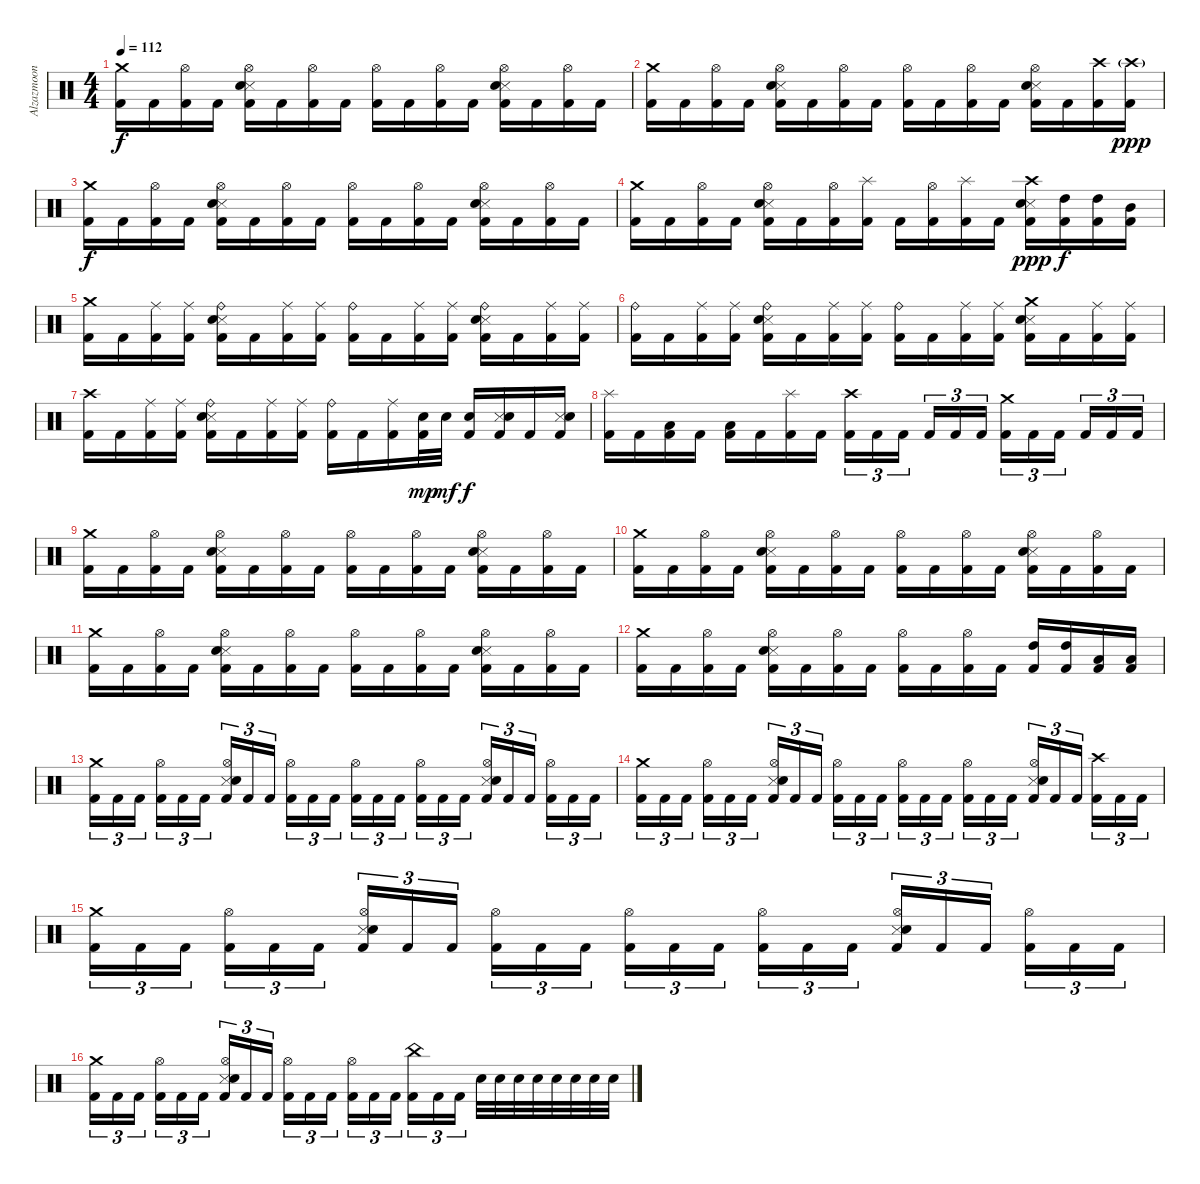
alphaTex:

\track ("Alzazmoon" "Alzazmoon") {instrument percussion}
\staff {score}
\articulation defaults
\ts (4 4)
\tempo 112
\clef neutral
\ks c
("Crash medium (hit)" "Kick (hit) 2").16{dy f} "Kick (hit) 2".16 ("Hi-Hat (open)" "Kick (hit) 2").16 "Kick (hit) 2".16 ("Hi-Hat (open)" "Snare (side stick) 3" "Snare (hit) 2" "Kick (hit) 2").16 "Kick (hit) 2".16 ("Hi-Hat (open)" "Kick (hit) 2").16 "Kick (hit) 2".16 ("Hi-Hat (open)" "Kick (hit) 2").16 "Kick (hit) 2".16 ("Hi-Hat (open)" "Kick (hit) 2").16 "Kick (hit) 2".16 ("Hi-Hat (open)" "Snare (side stick) 3" "Snare (hit) 2" "Kick (hit) 2").16 "Kick (hit) 2".16 ("Hi-Hat (open)" "Kick (hit) 2").16 "Kick (hit) 2".16 |
("Crash medium (hit)" "Kick (hit) 2").16 "Kick (hit) 2".16 ("Hi-Hat (open)" "Kick (hit) 2").16 "Kick (hit) 2".16 ("Hi-Hat (open)" "Snare (side stick) 3" "Snare (hit) 2" "Kick (hit) 2").16 "Kick (hit) 2".16 ("Hi-Hat (open)" "Kick (hit) 2").16 "Kick (hit) 2".16 ("Hi-Hat (open)" "Kick (hit) 2").16 "Kick (hit) 2".16 ("Hi-Hat (open)" "Kick (hit) 2").16 "Kick (hit) 2".16 ("Hi-Hat (open)" "Snare (side stick) 3" "Snare (hit) 2" "Kick (hit) 2").16 "Kick (hit) 2".16 ("Crash high (hit)" "Kick (hit) 2").16 ("Crash high (hit)"{g} "Kick (hit) 2").16{dy ppp} |
("Crash medium (hit)" "Kick (hit) 2").16{dy f} "Kick (hit) 2".16 ("Hi-Hat (open)" "Kick (hit) 2").16 "Kick (hit) 2".16 ("Hi-Hat (open)" "Snare (side stick) 3" "Snare (hit) 2" "Kick (hit) 2").16 "Kick (hit) 2".16 ("Hi-Hat (open)" "Kick (hit) 2").16 "Kick (hit) 2".16 ("Hi-Hat (open)" "Kick (hit) 2").16 "Kick (hit) 2".16 ("Hi-Hat (open)" "Kick (hit) 2").16 "Kick (hit) 2".16 ("Hi-Hat (open)" "Snare (side stick) 3" "Snare (hit) 2" "Kick (hit) 2").16 "Kick (hit) 2".16 ("Hi-Hat (open)" "Kick (hit) 2").16 "Kick (hit) 2".16 |
("Crash medium (hit)" "Kick (hit) 2").16 "Kick (hit) 2".16 ("Hi-Hat (open)" "Kick (hit) 2").16 "Kick (hit) 2".16 ("Hi-Hat (open)" "Snare (side stick) 3" "Snare (hit) 2" "Kick (hit) 2").16 "Kick (hit) 2".16 ("Hi-Hat (open)" "Kick (hit) 2").16 ("Splash (hit)" "Kick (hit) 2").16 "Kick (hit) 2".16 ("Hi-Hat (open)" "Kick (hit) 2").16 ("Splash (hit)" "Kick (hit) 2").16 "Kick (hit) 2".16 ("Crash high (hit)" "Snare (side stick) 3" "Snare (hit) 2" "Kick (hit) 2").16{dy ppp} ("High Tom (hit)" "Kick (hit) 2").16{dy f} ("High Tom (hit)" "Kick (hit) 2").16 ("Mid Tom (hit)" "Kick (hit) 2").16 |
("Crash medium (hit)" "Kick (hit) 2").16 "Kick (hit) 2".16 ("Ride (middle)" "Kick (hit) 2").16 ("Ride (middle)" "Kick (hit) 2").16 ("Ride (bell)" "Snare (side stick) 3" "Snare (hit) 2" "Kick (hit) 2").16 "Kick (hit) 2".16 ("Ride (middle)" "Kick (hit) 2").16 ("Ride (middle)" "Kick (hit) 2").16 ("Ride (bell)" "Kick (hit) 2").16 "Kick (hit) 2".16 ("Ride (middle)" "Kick (hit) 2").16 ("Ride (middle)" "Kick (hit) 2").16 ("Ride (bell)" "Snare (side stick) 3" "Snare (hit) 2" "Kick (hit) 2").16 "Kick (hit) 2".16 ("Ride (middle)" "Kick (hit) 2").16 ("Ride (middle)" "Kick (hit) 2").16 |
("Ride (bell)" "Kick (hit) 2").16 "Kick (hit) 2".16 ("Ride (middle)" "Kick (hit) 2").16 ("Ride (middle)" "Kick (hit) 2").16 ("Ride (bell)" "Snare (side stick) 3" "Snare (hit) 2" "Kick (hit) 2").16 "Kick (hit) 2".16 ("Ride (middle)" "Kick (hit) 2").16 ("Ride (middle)" "Kick (hit) 2").16 ("Ride (bell)" "Kick (hit) 2").16 "Kick (hit) 2".16 ("Ride (middle)" "Kick (hit) 2").16 ("Ride (middle)" "Kick (hit) 2").16 ("Crash medium (hit)" "Snare (side stick) 3" "Snare (hit) 2" "Kick (hit) 2").16 "Kick (hit) 2".16 ("Ride (middle)" "Kick (hit) 2").16 ("Ride (middle)" "Kick (hit) 2").16 |
("Crash high (hit)" "Kick (hit) 2").16 "Kick (hit) 2".16 ("Ride (middle)" "Kick (hit) 2").16 ("Ride (middle)" "Kick (hit) 2").16 ("Ride (bell)" "Snare (side stick) 3" "Snare (hit) 2" "Kick (hit) 2").16 "Kick (hit) 2".16 ("Ride (middle)" "Kick (hit) 2").16 ("Ride (middle)" "Kick (hit) 2").16 ("Ride (bell)" "Kick (hit) 2").16 "Kick (hit) 2".16 ("Ride (middle)" "Kick (hit) 2").16 ("Snare (hit) 2" "Kick (hit) 2").32{dy mp} "Snare (hit) 2".32{dy mf} ("Snare (hit) 2" "Kick (hit) 2").16{dy f} ("Snare (side stick) 3" "Snare (hit) 2" "Kick (hit) 2").16 "Kick (hit) 2".16 ("Snare (side stick) 3" "Snare (hit) 2" "Kick (hit) 2").16 |
("Splash (hit)" "Kick (hit) 2").16 "Kick (hit) 2".16 ("Low Tom (hit)" "Kick (hit) 2").16 "Kick (hit) 2".16 ("Low Tom (hit)" "Kick (hit) 2").16 "Kick (hit) 2".16 ("Splash (hit)" "Kick (hit) 2").16 "Kick (hit) 2".16 ("Crash high (hit)" "Kick (hit) 2").16{tu (3 2)} "Kick (hit) 2".16{tu (3 2)} "Kick (hit) 2".16{tu (3 2) beam splitsecondary} "Kick (hit) 2".16{tu (3 2)} "Kick (hit) 2".16{tu (3 2)} "Kick (hit) 2".16{tu (3 2)} ("Crash medium (hit)" "Kick (hit) 2").16{tu (3 2)} "Kick (hit) 2".16{tu (3 2)} "Kick (hit) 2".16{tu (3 2) beam splitsecondary} "Kick (hit) 2".16{tu (3 2)} "Kick (hit) 2".16{tu (3 2)} "Kick (hit) 2".16{tu (3 2)} |
("Crash medium (hit)" "Kick (hit) 2").16 "Kick (hit) 2".16 ("Hi-Hat (open)" "Kick (hit) 2").16 "Kick (hit) 2".16 ("Hi-Hat (open)" "Snare (side stick) 3" "Snare (hit) 2" "Kick (hit) 2").16 "Kick (hit) 2".16 ("Hi-Hat (open)" "Kick (hit) 2").16 "Kick (hit) 2".16 ("Hi-Hat (open)" "Kick (hit) 2").16 "Kick (hit) 2".16 ("Hi-Hat (open)" "Kick (hit) 2").16 "Kick (hit) 2".16 ("Hi-Hat (open)" "Snare (side stick) 3" "Snare (hit) 2" "Kick (hit) 2").16 "Kick (hit) 2".16 ("Hi-Hat (open)" "Kick (hit) 2").16 "Kick (hit) 2".16 |
("Crash medium (hit)" "Kick (hit) 2").16 "Kick (hit) 2".16 ("Hi-Hat (open)" "Kick (hit) 2").16 "Kick (hit) 2".16 ("Hi-Hat (open)" "Snare (side stick) 3" "Snare (hit) 2" "Kick (hit) 2").16 "Kick (hit) 2".16 ("Hi-Hat (open)" "Kick (hit) 2").16 "Kick (hit) 2".16 ("Hi-Hat (open)" "Kick (hit) 2").16 "Kick (hit) 2".16 ("Hi-Hat (open)" "Kick (hit) 2").16 "Kick (hit) 2".16 ("Hi-Hat (open)" "Snare (side stick) 3" "Snare (hit) 2" "Kick (hit) 2").16 "Kick (hit) 2".16 ("Hi-Hat (open)" "Kick (hit) 2").16 "Kick (hit) 2".16 |
("Crash medium (hit)" "Kick (hit) 2").16 "Kick (hit) 2".16 ("Hi-Hat (open)" "Kick (hit) 2").16 "Kick (hit) 2".16 ("Hi-Hat (open)" "Snare (side stick) 3" "Snare (hit) 2" "Kick (hit) 2").16 "Kick (hit) 2".16 ("Hi-Hat (open)" "Kick (hit) 2").16 "Kick (hit) 2".16 ("Hi-Hat (open)" "Kick (hit) 2").16 "Kick (hit) 2".16 ("Hi-Hat (open)" "Kick (hit) 2").16 "Kick (hit) 2".16 ("Hi-Hat (open)" "Snare (side stick) 3" "Snare (hit) 2" "Kick (hit) 2").16 "Kick (hit) 2".16 ("Hi-Hat (open)" "Kick (hit) 2").16 "Kick (hit) 2".16 |
("Crash medium (hit)" "Kick (hit) 2").16 "Kick (hit) 2".16 ("Hi-Hat (open)" "Kick (hit) 2").16 "Kick (hit) 2".16 ("Hi-Hat (open)" "Snare (side stick) 3" "Snare (hit) 2" "Kick (hit) 2").16 "Kick (hit) 2".16 ("Hi-Hat (open)" "Kick (hit) 2").16 "Kick (hit) 2".16 ("Hi-Hat (open)" "Kick (hit) 2").16 "Kick (hit) 2".16 ("Hi-Hat (open)" "Kick (hit) 2").16 "Kick (hit) 2".16 ("High Tom (hit)" "Kick (hit) 2").16 ("High Tom (hit)" "Kick (hit) 2").16 ("Low Tom (hit)" "Kick (hit) 2").16 ("Low Tom (hit)" "Kick (hit) 2").16 |
("Crash medium (hit)" "Kick (hit) 2").16{tu (3 2)} "Kick (hit) 2".16{tu (3 2)} "Kick (hit) 2".16{tu (3 2) beam splitsecondary} ("Hi-Hat (open)" "Kick (hit) 2").16{tu (3 2)} "Kick (hit) 2".16{tu (3 2)} "Kick (hit) 2".16{tu (3 2)} ("Hi-Hat (open)" "Snare (side stick) 3" "Snare (hit) 2" "Kick (hit) 2").16{tu (3 2)} "Kick (hit) 2".16{tu (3 2)} "Kick (hit) 2".16{tu (3 2) beam splitsecondary} ("Hi-Hat (open)" "Kick (hit) 2").16{tu (3 2)} "Kick (hit) 2".16{tu (3 2)} "Kick (hit) 2".16{tu (3 2)} ("Hi-Hat (open)" "Kick (hit) 2").16{tu (3 2)} "Kick (hit) 2".16{tu (3 2)} "Kick (hit) 2".16{tu (3 2) beam splitsecondary} ("Hi-Hat (open)" "Kick (hit) 2").16{tu (3 2)} "Kick (hit) 2".16{tu (3 2)} "Kick (hit) 2".16{tu (3 2)} ("Hi-Hat (open)" "Snare (side stick) 3" "Snare (hit) 2" "Kick (hit) 2").16{tu (3 2)} "Kick (hit) 2".16{tu (3 2)} "Kick (hit) 2".16{tu (3 2) beam splitsecondary} ("Hi-Hat (open)" "Kick (hit) 2").16{tu (3 2)} "Kick (hit) 2".16{tu (3 2)} "Kick (hit) 2".16{tu (3 2)} |
("Crash medium (hit)" "Kick (hit) 2").16{tu (3 2)} "Kick (hit) 2".16{tu (3 2)} "Kick (hit) 2".16{tu (3 2) beam splitsecondary} ("Hi-Hat (open)" "Kick (hit) 2").16{tu (3 2)} "Kick (hit) 2".16{tu (3 2)} "Kick (hit) 2".16{tu (3 2)} ("Hi-Hat (open)" "Snare (side stick) 3" "Snare (hit) 2" "Kick (hit) 2").16{tu (3 2)} "Kick (hit) 2".16{tu (3 2)} "Kick (hit) 2".16{tu (3 2) beam splitsecondary} ("Hi-Hat (open)" "Kick (hit) 2").16{tu (3 2)} "Kick (hit) 2".16{tu (3 2)} "Kick (hit) 2".16{tu (3 2)} ("Hi-Hat (open)" "Kick (hit) 2").16{tu (3 2)} "Kick (hit) 2".16{tu (3 2)} "Kick (hit) 2".16{tu (3 2) beam splitsecondary} ("Hi-Hat (open)" "Kick (hit) 2").16{tu (3 2)} "Kick (hit) 2".16{tu (3 2)} "Kick (hit) 2".16{tu (3 2)} ("Hi-Hat (open)" "Snare (side stick) 3" "Snare (hit) 2" "Kick (hit) 2").16{tu (3 2)} "Kick (hit) 2".16{tu (3 2)} "Kick (hit) 2".16{tu (3 2) beam splitsecondary} ("Crash high (hit)" "Kick (hit) 2").16{tu (3 2)} "Kick (hit) 2".16{tu (3 2)} "Kick (hit) 2".16{tu (3 2)} |
("Crash medium (hit)" "Kick (hit) 2").16{tu (3 2)} "Kick (hit) 2".16{tu (3 2)} "Kick (hit) 2".16{tu (3 2) beam splitsecondary} ("Hi-Hat (open)" "Kick (hit) 2").16{tu (3 2)} "Kick (hit) 2".16{tu (3 2)} "Kick (hit) 2".16{tu (3 2)} ("Hi-Hat (open)" "Snare (side stick) 3" "Snare (hit) 2" "Kick (hit) 2").16{tu (3 2)} "Kick (hit) 2".16{tu (3 2)} "Kick (hit) 2".16{tu (3 2) beam splitsecondary} ("Hi-Hat (open)" "Kick (hit) 2").16{tu (3 2)} "Kick (hit) 2".16{tu (3 2)} "Kick (hit) 2".16{tu (3 2)} ("Hi-Hat (open)" "Kick (hit) 2").16{tu (3 2)} "Kick (hit) 2".16{tu (3 2)} "Kick (hit) 2".16{tu (3 2) beam splitsecondary} ("Hi-Hat (open)" "Kick (hit) 2").16{tu (3 2)} "Kick (hit) 2".16{tu (3 2)} "Kick (hit) 2".16{tu (3 2)} ("Hi-Hat (open)" "Snare (side stick) 3" "Snare (hit) 2" "Kick (hit) 2").16{tu (3 2)} "Kick (hit) 2".16{tu (3 2)} "Kick (hit) 2".16{tu (3 2) beam splitsecondary} ("Hi-Hat (open)" "Kick (hit) 2").16{tu (3 2)} "Kick (hit) 2".16{tu (3 2)} "Kick (hit) 2".16{tu (3 2)} |
("Crash medium (hit)" "Kick (hit) 2").16{tu (3 2)} "Kick (hit) 2".16{tu (3 2)} "Kick (hit) 2".16{tu (3 2) beam splitsecondary} ("Hi-Hat (open)" "Kick (hit) 2").16{tu (3 2)} "Kick (hit) 2".16{tu (3 2)} "Kick (hit) 2".16{tu (3 2)} ("Hi-Hat (open)" "Snare (side stick) 3" "Snare (hit) 2" "Kick (hit) 2").16{tu (3 2)} "Kick (hit) 2".16{tu (3 2)} "Kick (hit) 2".16{tu (3 2) beam splitsecondary} ("Hi-Hat (open)" "Kick (hit) 2").16{tu (3 2)} "Kick (hit) 2".16{tu (3 2)} "Kick (hit) 2".16{tu (3 2)} ("Hi-Hat (open)" "Kick (hit) 2").16{tu (3 2)} "Kick (hit) 2".16{tu (3 2)} "Kick (hit) 2".16{tu (3 2) beam splitsecondary} ("China (hit)" "Kick (hit) 2").16{tu (3 2)} "Kick (hit) 2".16{tu (3 2)} "Kick (hit) 2".16{tu (3 2)} "Snare (hit) 2".32 "Snare (hit) 2".32 "Snare (hit) 2".32 "Snare (hit) 2".32 "Snare (hit) 2".32 "Snare (hit) 2".32 "Snare (hit) 2".32 "Snare (hit) 2".32
